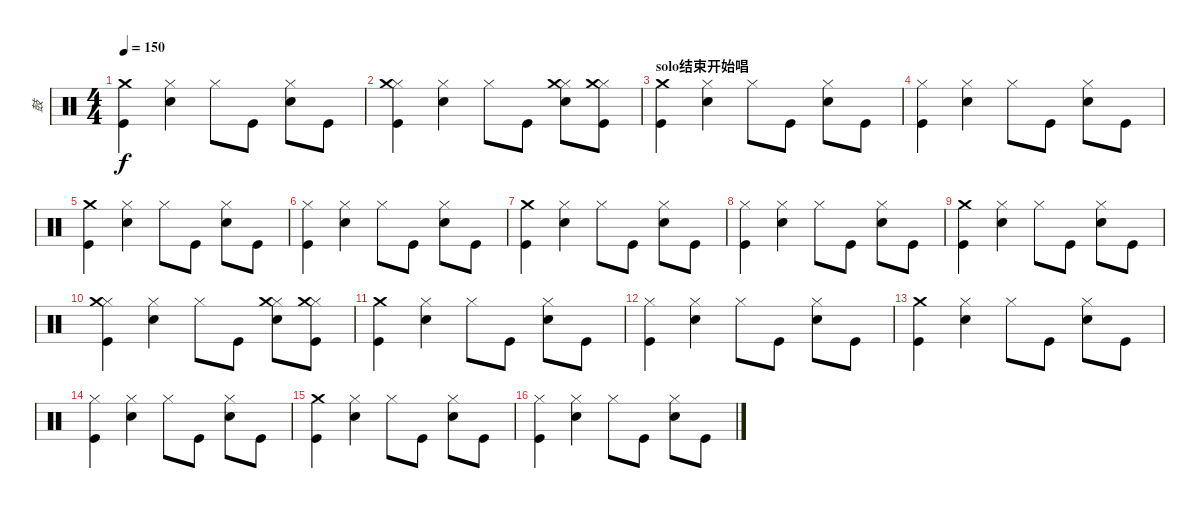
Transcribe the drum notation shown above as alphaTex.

\track ("鼓" "鼓") {instrument percussion}
\staff {score}
\articulation defaults
\ts (4 4)
\tempo 150
\clef neutral
\ks c
("Kick (hit)" "Crash medium (hit)").4{dy f} ("Snare (hit) 2" "Hi-Hat (closed)").4 "Hi-Hat (closed)".8 "Kick (hit)".8 ("Snare (hit) 2" "Hi-Hat (closed)").8 "Kick (hit)".8 |
("Kick (hit)" "Hi-Hat (closed)" "Crash medium (hit)").4 ("Snare (hit) 2" "Hi-Hat (closed)").4 "Hi-Hat (closed)".8 "Kick (hit)".8 ("Snare (hit) 2" "Hi-Hat (closed)" "Crash medium (hit)").8 ("Kick (hit)" "Hi-Hat (closed)" "Crash medium (hit)").8 |
\section ("" "solo结束开始唱")
("Kick (hit)" "Crash medium (hit)").4 ("Snare (hit) 2" "Hi-Hat (closed)").4 "Hi-Hat (closed)".8 "Kick (hit)".8 ("Snare (hit) 2" "Hi-Hat (closed)").8 "Kick (hit)".8 |
("Kick (hit)" "Hi-Hat (closed)").4 ("Snare (hit) 2" "Hi-Hat (closed)").4 "Hi-Hat (closed)".8 "Kick (hit)".8 ("Snare (hit) 2" "Hi-Hat (closed)").8 "Kick (hit)".8 |
("Kick (hit)" "Crash medium (hit)").4 ("Snare (hit) 2" "Hi-Hat (closed)").4 "Hi-Hat (closed)".8 "Kick (hit)".8 ("Snare (hit) 2" "Hi-Hat (closed)").8 "Kick (hit)".8 |
("Kick (hit)" "Hi-Hat (closed)").4 ("Snare (hit) 2" "Hi-Hat (closed)").4 "Hi-Hat (closed)".8 "Kick (hit)".8 ("Snare (hit) 2" "Hi-Hat (closed)").8 "Kick (hit)".8 |
("Kick (hit)" "Crash medium (hit)").4 ("Snare (hit) 2" "Hi-Hat (closed)").4 "Hi-Hat (closed)".8 "Kick (hit)".8 ("Snare (hit) 2" "Hi-Hat (closed)").8 "Kick (hit)".8 |
("Kick (hit)" "Hi-Hat (closed)").4 ("Snare (hit) 2" "Hi-Hat (closed)").4 "Hi-Hat (closed)".8 "Kick (hit)".8 ("Snare (hit) 2" "Hi-Hat (closed)").8 "Kick (hit)".8 |
("Kick (hit)" "Crash medium (hit)").4 ("Snare (hit) 2" "Hi-Hat (closed)").4 "Hi-Hat (closed)".8 "Kick (hit)".8 ("Snare (hit) 2" "Hi-Hat (closed)").8 "Kick (hit)".8 |
("Kick (hit)" "Hi-Hat (closed)" "Crash medium (hit)").4 ("Snare (hit) 2" "Hi-Hat (closed)").4 "Hi-Hat (closed)".8 "Kick (hit)".8 ("Snare (hit) 2" "Hi-Hat (closed)" "Crash medium (hit)").8 ("Kick (hit)" "Hi-Hat (closed)" "Crash medium (hit)").8 |
("Kick (hit)" "Crash medium (hit)").4 ("Snare (hit) 2" "Hi-Hat (closed)").4 "Hi-Hat (closed)".8 "Kick (hit)".8 ("Snare (hit) 2" "Hi-Hat (closed)").8 "Kick (hit)".8 |
("Kick (hit)" "Hi-Hat (closed)").4 ("Snare (hit) 2" "Hi-Hat (closed)").4 "Hi-Hat (closed)".8 "Kick (hit)".8 ("Snare (hit) 2" "Hi-Hat (closed)").8 "Kick (hit)".8 |
("Kick (hit)" "Crash medium (hit)").4 ("Snare (hit) 2" "Hi-Hat (closed)").4 "Hi-Hat (closed)".8 "Kick (hit)".8 ("Snare (hit) 2" "Hi-Hat (closed)").8 "Kick (hit)".8 |
("Kick (hit)" "Hi-Hat (closed)").4 ("Snare (hit) 2" "Hi-Hat (closed)").4 "Hi-Hat (closed)".8 "Kick (hit)".8 ("Snare (hit) 2" "Hi-Hat (closed)").8 "Kick (hit)".8 |
("Kick (hit)" "Crash medium (hit)").4 ("Snare (hit) 2" "Hi-Hat (closed)").4 "Hi-Hat (closed)".8 "Kick (hit)".8 ("Snare (hit) 2" "Hi-Hat (closed)").8 "Kick (hit)".8 |
("Kick (hit)" "Hi-Hat (closed)").4 ("Snare (hit) 2" "Hi-Hat (closed)").4 "Hi-Hat (closed)".8 "Kick (hit)".8 ("Snare (hit) 2" "Hi-Hat (closed)").8 "Kick (hit)".8
